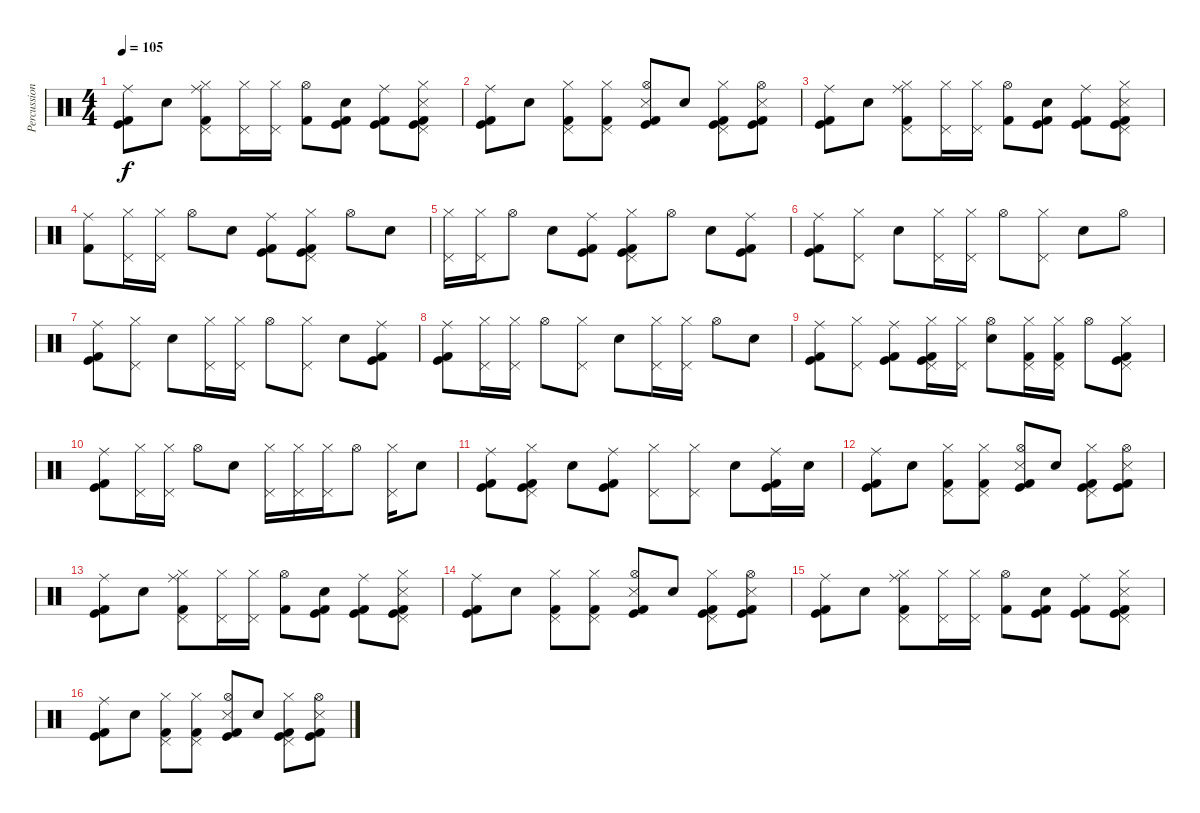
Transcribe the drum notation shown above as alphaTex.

\track ("Percussion" "Percussion") {instrument percussion}
\staff {score}
\articulation defaults
\ts (4 4)
\tempo 105
\clef neutral
\ks c
("Kick (hit)" "Kick (hit) 2" "Ride (middle)").8{dy f volume 16} "Snare (hit) 2".8{volume 16} ("Kick (hit) 2" "Ride (middle)" "Pedal Hi-Hat (hit)" "Hi-Hat (closed)").8{volume 16} ("Pedal Hi-Hat (hit)" "Hi-Hat (closed)").16{volume 16} ("Pedal Hi-Hat (hit)" "Hi-Hat (closed)").16{volume 16} ("Hi-Hat (open)" "Kick (hit) 2").8{volume 16} ("Snare (hit) 2" "Kick (hit) 2" "Kick (hit)").8{volume 16} ("Kick (hit) 2" "Kick (hit)" "Ride (middle)").8{volume 16} ("Kick (hit) 2" "Kick (hit)" "Snare (side stick) 3" "Pedal Hi-Hat (hit)" "Hi-Hat (closed)").8{volume 16} |
("Ride (middle)" "Kick (hit)" "Kick (hit) 2").8{volume 16} "Snare (hit) 2".8{volume 16} ("Hi-Hat (closed)" "Pedal Hi-Hat (hit)" "Kick (hit) 2").8{volume 16} ("Hi-Hat (closed)" "Pedal Hi-Hat (hit)" "Kick (hit) 2").8{volume 16} ("Snare (side stick) 3" "Kick (hit)" "Kick (hit) 2" "Hi-Hat (open)").8{volume 16} "Snare (hit) 2".8{volume 16} ("Hi-Hat (closed)" "Pedal Hi-Hat (hit)" "Kick (hit) 2" "Kick (hit)").8{volume 16} ("Hi-Hat (open)" "Kick (hit) 2" "Kick (hit)" "Snare (side stick) 3").8{volume 16} |
("Kick (hit)" "Kick (hit) 2" "Ride (middle)").8{volume 16} "Snare (hit) 2".8{volume 16} ("Kick (hit) 2" "Ride (middle)" "Pedal Hi-Hat (hit)" "Hi-Hat (closed)").8{volume 16} ("Pedal Hi-Hat (hit)" "Hi-Hat (closed)").16{volume 16} ("Pedal Hi-Hat (hit)" "Hi-Hat (closed)").16{volume 16} ("Hi-Hat (open)" "Kick (hit) 2").8{volume 16} ("Snare (hit) 2" "Kick (hit) 2" "Kick (hit)").8{volume 16} ("Kick (hit) 2" "Kick (hit)" "Ride (middle)").8{volume 16} ("Kick (hit) 2" "Kick (hit)" "Snare (side stick) 3" "Pedal Hi-Hat (hit)" "Hi-Hat (closed)").8{volume 16} |
("Kick (hit) 2" "Ride (middle)").8{volume 16} ("Pedal Hi-Hat (hit)" "Hi-Hat (closed)").16{volume 16} ("Pedal Hi-Hat (hit)" "Hi-Hat (closed)").16{volume 16} "Hi-Hat (open)".8{volume 16} "Snare (hit) 2".8{volume 16} ("Kick (hit) 2" "Kick (hit)" "Ride (middle)").8{volume 16} ("Kick (hit) 2" "Kick (hit)" "Pedal Hi-Hat (hit)" "Hi-Hat (closed)").8{volume 16} "Hi-Hat (open)".8{volume 16} "Snare (hit) 2".8{volume 16} |
("Pedal Hi-Hat (hit)" "Hi-Hat (closed)").16{volume 16} ("Pedal Hi-Hat (hit)" "Hi-Hat (closed)").16{volume 16} "Hi-Hat (open)".8{volume 16} "Snare (hit) 2".8{volume 16} ("Kick (hit) 2" "Kick (hit)" "Ride (middle)").8{volume 16} ("Kick (hit) 2" "Kick (hit)" "Pedal Hi-Hat (hit)" "Hi-Hat (closed)").8{volume 16} "Hi-Hat (open)".8{volume 16} "Snare (hit) 2".8{volume 16} ("Kick (hit) 2" "Kick (hit)" "Ride (middle)").8 |
("Kick (hit)" "Kick (hit) 2" "Ride (middle)").8{volume 16} ("Pedal Hi-Hat (hit)" "Hi-Hat (closed)").8{volume 16} "Snare (hit) 2".8{volume 16} ("Pedal Hi-Hat (hit)" "Hi-Hat (closed)").16{volume 16} ("Pedal Hi-Hat (hit)" "Hi-Hat (closed)").16{volume 16} "Hi-Hat (open)".8 ("Pedal Hi-Hat (hit)" "Hi-Hat (closed)").8{volume 16} "Snare (hit) 2".8{volume 16} "Hi-Hat (open)".8{volume 16} |
("Kick (hit)" "Kick (hit) 2" "Ride (middle)").8{volume 16} ("Pedal Hi-Hat (hit)" "Hi-Hat (closed)").8{volume 16} "Snare (hit) 2".8{volume 16} ("Pedal Hi-Hat (hit)" "Hi-Hat (closed)").16{volume 16} ("Pedal Hi-Hat (hit)" "Hi-Hat (closed)").16{volume 16} "Hi-Hat (open)".8{volume 16} ("Pedal Hi-Hat (hit)" "Hi-Hat (closed)").8{volume 16} "Snare (hit) 2".8{volume 16} ("Kick (hit) 2" "Kick (hit)" "Ride (middle)").8{volume 16} |
("Kick (hit) 2" "Kick (hit)" "Ride (middle)").8{volume 16} ("Hi-Hat (closed)" "Pedal Hi-Hat (hit)").16{volume 16} ("Pedal Hi-Hat (hit)" "Hi-Hat (closed)").16{volume 16} "Hi-Hat (open)".8{volume 16} ("Pedal Hi-Hat (hit)" "Hi-Hat (closed)").8{volume 16} "Snare (hit) 2".8{volume 16} ("Pedal Hi-Hat (hit)" "Hi-Hat (closed)").16{volume 16} ("Pedal Hi-Hat (hit)" "Hi-Hat (closed)").16{volume 16} "Hi-Hat (open)".8{volume 16} "Snare (hit) 2".8{volume 16} |
("Kick (hit) 2" "Kick (hit)" "Ride (middle)").8{volume 16} ("Pedal Hi-Hat (hit)" "Hi-Hat (closed)").8{volume 16} ("Kick (hit) 2" "Kick (hit)" "Ride (middle)").8{volume 16} ("Kick (hit) 2" "Kick (hit)" "Pedal Hi-Hat (hit)" "Hi-Hat (closed)").16{volume 16} ("Pedal Hi-Hat (hit)" "Hi-Hat (closed)").16{volume 16} ("Hi-Hat (open)" "Snare (hit) 2").8{volume 16} ("Pedal Hi-Hat (hit)" "Hi-Hat (closed)" "Kick (hit) 2").16{volume 16} ("Pedal Hi-Hat (hit)" "Hi-Hat (closed)" "Kick (hit) 2").16{volume 16} "Hi-Hat (open)".8{volume 16} ("Pedal Hi-Hat (hit)" "Hi-Hat (closed)" "Kick (hit) 2" "Kick (hit)").8{volume 16} |
("Kick (hit) 2" "Kick (hit)" "Ride (middle)").8{volume 16} ("Pedal Hi-Hat (hit)" "Hi-Hat (closed)").16{volume 16} ("Pedal Hi-Hat (hit)" "Hi-Hat (closed)").16{volume 16} "Hi-Hat (open)".8{volume 16} "Snare (hit) 2".8{volume 16} ("Pedal Hi-Hat (hit)" "Hi-Hat (closed)").16{volume 16} ("Pedal Hi-Hat (hit)" "Hi-Hat (closed)").16{volume 16} ("Pedal Hi-Hat (hit)" "Hi-Hat (closed)").16{volume 16} "Hi-Hat (open)".8{volume 16} ("Pedal Hi-Hat (hit)" "Hi-Hat (closed)").16{volume 16} "Snare (hit) 2".8{volume 16} |
("Kick (hit) 2" "Kick (hit)" "Ride (middle)").8{volume 16} ("Kick (hit) 2" "Kick (hit)" "Pedal Hi-Hat (hit)" "Hi-Hat (closed)").8{volume 16} "Snare (hit) 2".8{volume 16} ("Kick (hit) 2" "Kick (hit)" "Ride (middle)").8{volume 16} ("Hi-Hat (closed)" "Pedal Hi-Hat (hit)").8{volume 16} ("Pedal Hi-Hat (hit)" "Hi-Hat (closed)").8{volume 16} "Snare (hit) 2".8{volume 16} ("Kick (hit) 2" "Kick (hit)" "Ride (middle)").16{volume 16} "Snare (hit) 2".16 |
("Ride (middle)" "Kick (hit)" "Kick (hit) 2").8{volume 16} "Snare (hit) 2".8{volume 16} ("Hi-Hat (closed)" "Pedal Hi-Hat (hit)" "Kick (hit) 2").8{volume 16} ("Hi-Hat (closed)" "Pedal Hi-Hat (hit)" "Kick (hit) 2").8{volume 16} ("Snare (side stick) 3" "Kick (hit)" "Kick (hit) 2" "Hi-Hat (open)").8{volume 16} "Snare (hit) 2".8{volume 16} ("Hi-Hat (closed)" "Pedal Hi-Hat (hit)" "Kick (hit) 2" "Kick (hit)").8{volume 16} ("Hi-Hat (open)" "Kick (hit) 2" "Kick (hit)" "Snare (side stick) 3").8{volume 16} |
("Kick (hit)" "Kick (hit) 2" "Ride (middle)").8{volume 16} "Snare (hit) 2".8{volume 16} ("Kick (hit) 2" "Ride (middle)" "Pedal Hi-Hat (hit)" "Hi-Hat (closed)").8{volume 16} ("Pedal Hi-Hat (hit)" "Hi-Hat (closed)").16{volume 16} ("Pedal Hi-Hat (hit)" "Hi-Hat (closed)").16{volume 16} ("Hi-Hat (open)" "Kick (hit) 2").8{volume 16} ("Snare (hit) 2" "Kick (hit) 2" "Kick (hit)").8{volume 16} ("Kick (hit) 2" "Kick (hit)" "Ride (middle)").8{volume 16} ("Kick (hit) 2" "Kick (hit)" "Snare (side stick) 3" "Pedal Hi-Hat (hit)" "Hi-Hat (closed)").8{volume 16} |
("Ride (middle)" "Kick (hit)" "Kick (hit) 2").8{volume 16} "Snare (hit) 2".8{volume 16} ("Hi-Hat (closed)" "Pedal Hi-Hat (hit)" "Kick (hit) 2").8{volume 16} ("Hi-Hat (closed)" "Pedal Hi-Hat (hit)" "Kick (hit) 2").8{volume 16} ("Snare (side stick) 3" "Kick (hit)" "Kick (hit) 2" "Hi-Hat (open)").8{volume 16} "Snare (hit) 2".8{volume 16} ("Hi-Hat (closed)" "Pedal Hi-Hat (hit)" "Kick (hit) 2" "Kick (hit)").8{volume 16} ("Hi-Hat (open)" "Kick (hit) 2" "Kick (hit)" "Snare (side stick) 3").8{volume 16} |
("Kick (hit)" "Kick (hit) 2" "Ride (middle)").8{volume 16} "Snare (hit) 2".8{volume 16} ("Kick (hit) 2" "Ride (middle)" "Pedal Hi-Hat (hit)" "Hi-Hat (closed)").8{volume 16} ("Pedal Hi-Hat (hit)" "Hi-Hat (closed)").16{volume 16} ("Pedal Hi-Hat (hit)" "Hi-Hat (closed)").16{volume 16} ("Hi-Hat (open)" "Kick (hit) 2").8{volume 16} ("Snare (hit) 2" "Kick (hit) 2" "Kick (hit)").8{volume 16} ("Kick (hit) 2" "Kick (hit)" "Ride (middle)").8{volume 16} ("Kick (hit) 2" "Kick (hit)" "Snare (side stick) 3" "Pedal Hi-Hat (hit)" "Hi-Hat (closed)").8{volume 16} |
("Ride (middle)" "Kick (hit)" "Kick (hit) 2").8{volume 16} "Snare (hit) 2".8{volume 16} ("Hi-Hat (closed)" "Pedal Hi-Hat (hit)" "Kick (hit) 2").8{volume 16} ("Hi-Hat (closed)" "Pedal Hi-Hat (hit)" "Kick (hit) 2").8{volume 16} ("Snare (side stick) 3" "Kick (hit)" "Kick (hit) 2" "Hi-Hat (open)").8{volume 16} "Snare (hit) 2".8{volume 16} ("Hi-Hat (closed)" "Pedal Hi-Hat (hit)" "Kick (hit) 2" "Kick (hit)").8{volume 16} ("Hi-Hat (open)" "Kick (hit) 2" "Kick (hit)" "Snare (side stick) 3").8{volume 16}
